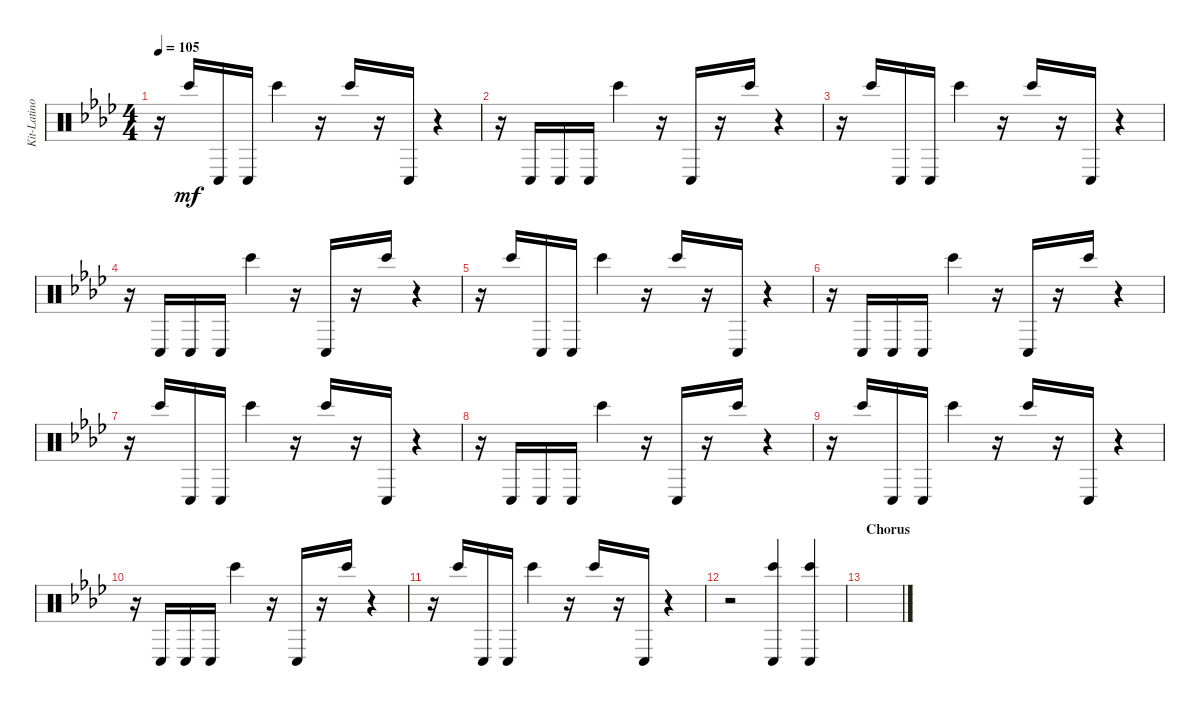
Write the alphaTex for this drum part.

\track ("Kit-Latino" "Kit-Latino") {instrument percussion}
\staff {score}
\articulation defaults
\ts (4 4)
\tempo 105
\clef neutral
\ks ab
r.16{dy mf} "Bongo High (hit)".16 "Conga low (hit)".16 "Conga low (hit)".16 "Bongo High (hit)".4 r.16 "Bongo High (hit)".16 r.16 "Conga low (hit)".16 r.4 |
r.16 "Conga low (hit)".16 "Conga low (hit)".16 "Conga low (hit)".16 "Bongo High (hit)".4 r.16 "Conga low (hit)".16 r.16 "Bongo High (hit)".16 r.4 |
r.16 "Bongo High (hit)".16 "Conga low (hit)".16 "Conga low (hit)".16 "Bongo High (hit)".4 r.16 "Bongo High (hit)".16 r.16 "Conga low (hit)".16 r.4 |
r.16 "Conga low (hit)".16 "Conga low (hit)".16 "Conga low (hit)".16 "Bongo High (hit)".4 r.16 "Conga low (hit)".16 r.16 "Bongo High (hit)".16 r.4 |
r.16 "Bongo High (hit)".16 "Conga low (hit)".16 "Conga low (hit)".16 "Bongo High (hit)".4 r.16 "Bongo High (hit)".16 r.16 "Conga low (hit)".16 r.4 |
r.16 "Conga low (hit)".16 "Conga low (hit)".16 "Conga low (hit)".16 "Bongo High (hit)".4 r.16 "Conga low (hit)".16 r.16 "Bongo High (hit)".16 r.4 |
r.16 "Bongo High (hit)".16 "Conga low (hit)".16 "Conga low (hit)".16 "Bongo High (hit)".4 r.16 "Bongo High (hit)".16 r.16 "Conga low (hit)".16 r.4 |
r.16 "Conga low (hit)".16 "Conga low (hit)".16 "Conga low (hit)".16 "Bongo High (hit)".4 r.16 "Conga low (hit)".16 r.16 "Bongo High (hit)".16 r.4 |
r.16 "Bongo High (hit)".16 "Conga low (hit)".16 "Conga low (hit)".16 "Bongo High (hit)".4 r.16 "Bongo High (hit)".16 r.16 "Conga low (hit)".16 r.4 |
r.16 "Conga low (hit)".16 "Conga low (hit)".16 "Conga low (hit)".16 "Bongo High (hit)".4 r.16 "Conga low (hit)".16 r.16 "Bongo High (hit)".16 r.4 |
r.16 "Bongo High (hit)".16 "Conga low (hit)".16 "Conga low (hit)".16 "Bongo High (hit)".4 r.16 "Bongo High (hit)".16 r.16 "Conga low (hit)".16 r.4 |
r.2 ("Bongo High (hit)" "Conga low (hit)").4 ("Bongo High (hit)" "Conga low (hit)").4 |
\section ("" "Chorus")
